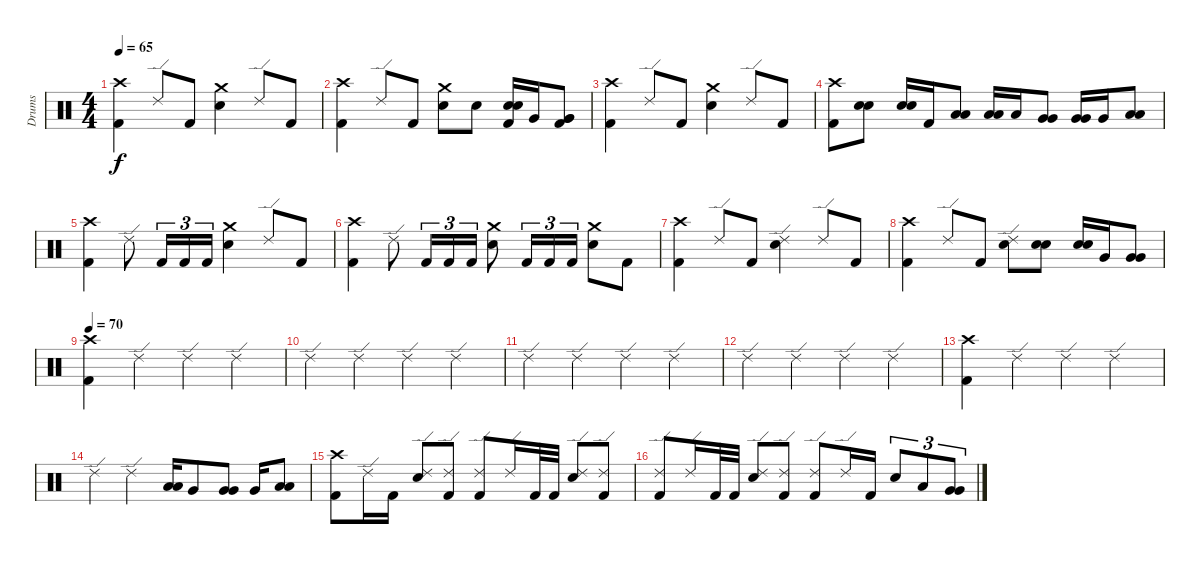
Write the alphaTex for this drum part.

\track ("Drums" "Drums") {instrument percussion}
\staff {score}
\articulation defaults
\ts (4 4)
\tempo 65
\clef neutral
\ks c
("Crash high (hit)" "Kick (hit) 2").4{dy f} "Ride (edge) 2".8 "Kick (hit) 2".8 ("Crash medium (hit)" "Electric Snare (hit)").4 "Ride (edge) 2".8 "Kick (hit) 2".8 |
("Crash high (hit)" "Kick (hit) 2").4 "Ride (edge) 2".8 "Kick (hit) 2".8 ("Crash medium (hit)" "Electric Snare (hit)").8 "Electric Snare (hit)".8 ("Electric Snare (hit)" "Electric Snare (hit)" "Kick (hit) 2").16{bu 60} "Very Low Tom (hit)".16 ("Very Low Tom (hit)" "Very Low Tom (hit)" "Kick (hit) 2").8{bu 60} |
("Crash high (hit)" "Kick (hit) 2").4 "Ride (edge) 2".8 "Kick (hit) 2".8 ("Crash medium (hit)" "Electric Snare (hit)").4 "Ride (edge) 2".8 "Kick (hit) 2".8 |
("Crash high (hit)" "Kick (hit) 2").8 ("Electric Snare (hit)" "Electric Snare (hit)").8{bu 60} ("Electric Snare (hit)" "Electric Snare (hit)").16{bu 60} "Kick (hit) 2".16 ("Low Tom (hit)" "Low Tom (hit)").8{bu 60} ("Low Tom (hit)" "Low Tom (hit)").16{bu 60} "Low Tom (hit)".16 ("Very Low Tom (hit)" "Very Low Tom (hit)").8{bu 60} ("Very Low Tom (hit)" "Very Low Tom (hit)").16{bu 60} "Very Low Tom (hit)".16 ("Low Floor Tom (hit)" "Low Floor Tom (hit)").8{bu 60} |
("Crash high (hit)" "Kick (hit) 2").4 "Ride (edge) 2".8 "Kick (hit) 2".16{tu (3 2)} "Kick (hit) 2".16{tu (3 2)} "Kick (hit) 2".16{tu (3 2)} ("Crash medium (hit)" "Electric Snare (hit)").4 "Ride (edge) 2".8 "Kick (hit) 2".8 |
("Crash high (hit)" "Kick (hit) 2").4 "Ride (edge) 2".8 "Kick (hit) 2".16{tu (3 2)} "Kick (hit) 2".16{tu (3 2)} "Kick (hit) 2".16{tu (3 2)} ("Crash medium (hit)" "Electric Snare (hit)").8 "Kick (hit) 2".16{tu (3 2)} "Kick (hit) 2".16{tu (3 2)} "Kick (hit) 2".16{tu (3 2)} ("Crash medium (hit)" "Electric Snare (hit)").8 "Kick (hit) 2".8 |
("Crash high (hit)" "Kick (hit) 2").4 "Ride (edge) 2".8 "Kick (hit) 2".8 ("Ride (edge) 2" "Electric Snare (hit)").4 "Ride (edge) 2".8 "Kick (hit) 2".8 |
("Crash high (hit)" "Kick (hit) 2").4 "Ride (edge) 2".8 "Kick (hit) 2".8 ("Ride (edge) 2" "Electric Snare (hit)").8 ("Electric Snare (hit)" "Electric Snare (hit)").8{bu 60} ("Electric Snare (hit)" "Electric Snare (hit)").16{bu 60} "Very Low Tom (hit)".16 ("Very Low Tom (hit)" "Very Low Tom (hit)").8{bu 60} |
\tempo 70
("Crash high (hit)" "Kick (hit) 2").4 "Ride (edge) 2".4 "Ride (edge) 2".4 "Ride (edge) 2".4 |
"Ride (edge) 2".4 "Ride (edge) 2".4 "Ride (edge) 2".4 "Ride (edge) 2".4 |
"Ride (edge) 2".4 "Ride (edge) 2".4 "Ride (edge) 2".4 "Ride (edge) 2".4 |
"Ride (edge) 2".4 "Ride (edge) 2".4 "Ride (edge) 2".4 "Ride (edge) 2".4 |
("Crash high (hit)" "Kick (hit) 2").4 "Ride (edge) 2".4 "Ride (edge) 2".4 "Ride (edge) 2".4 |
"Ride (edge) 2".4 "Ride (edge) 2".4 ("Low Tom (hit)" "Low Tom (hit)").16{bu 60} "Very Low Tom (hit)".8 ("Very Low Tom (hit)" "Very Low Tom (hit)").8{bu 60} "Very Low Tom (hit)".16 ("Low Floor Tom (hit)" "Low Floor Tom (hit)").8{bu 60} |
("Crash high (hit)" "Kick (hit) 2").8 "Ride (edge) 2".16 "Kick (hit) 2".16 ("Ride (edge) 2" "Electric Snare (hit)").8 ("Ride (edge) 2" "Kick (hit) 2").8 ("Ride (edge) 2" "Kick (hit) 2").8 "Ride (edge) 2".16 "Kick (hit) 2".32 "Kick (hit) 2".32 ("Ride (edge) 2" "Electric Snare (hit)").8 ("Ride (edge) 2" "Kick (hit) 2").8 |
("Ride (edge) 2" "Kick (hit) 2").8 "Ride (edge) 2".16 "Kick (hit) 2".32 "Kick (hit) 2".32 ("Ride (edge) 2" "Electric Snare (hit)").8 ("Ride (edge) 2" "Kick (hit) 2").8 ("Ride (edge) 2" "Kick (hit) 2").8 "Ride (edge) 2".16 "Kick (hit) 2".16 "Electric Snare (hit)".8{tu (3 2)} "Low Tom (hit)".8{tu (3 2)} ("Very Low Tom (hit)" "Very Low Tom (hit)").8{tu (3 2) bu 60}
